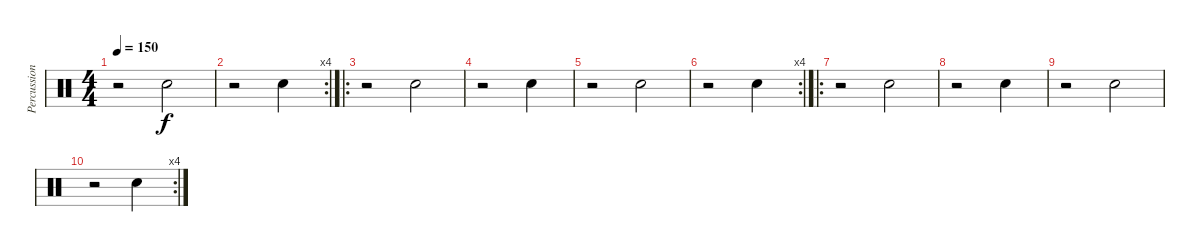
\track ("Percussions" "Percussion") {instrument percussion}
\staff {score}
\articulation defaults
\ts (4 4)
\tempo 150
\clef neutral
\ks c
r.2{dy f} "Electric Snare (hit)".2 |
\rc 4
r.2 "Electric Snare (hit)".4 |
\ro
r.2 "Electric Snare (hit)".2 |
r.2 "Electric Snare (hit)".4 |
r.2 "Electric Snare (hit)".2 |
\rc 4
r.2 "Electric Snare (hit)".4 |
\ro
r.2 "Electric Snare (hit)".2 |
r.2 "Electric Snare (hit)".4 |
r.2 "Electric Snare (hit)".2 |
\rc 4
r.2 "Electric Snare (hit)".4
